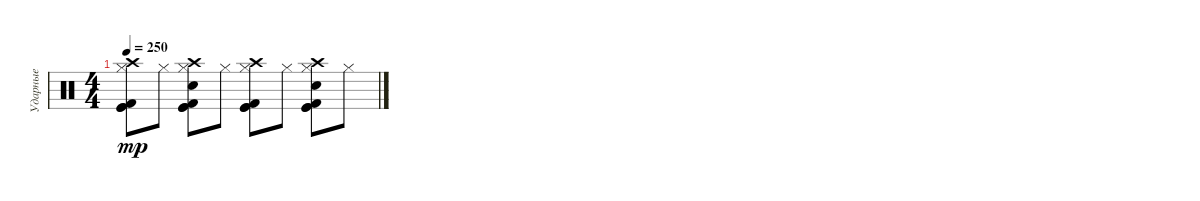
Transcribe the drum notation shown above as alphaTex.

\track ("Ударные" "Ударные") {instrument percussion}
\staff {score}
\articulation defaults
\ts (4 4)
\tempo 250
\clef neutral
\ks c
("Kick (hit)" "Kick (hit)" "Hi-Hat (closed)" "Crash high (hit)" "Kick (hit) 2").8{dy mp} "Hi-Hat (closed)".8 ("Kick (hit)" "Kick (hit)" "Hi-Hat (closed)" "Crash high (hit)" "Hand Clap (hit)" "Kick (hit) 2").8 "Hi-Hat (closed)".8 ("Kick (hit)" "Kick (hit)" "Hi-Hat (closed)" "Crash high (hit)" "Kick (hit) 2").8 "Hi-Hat (closed)".8 ("Kick (hit)" "Kick (hit)" "Hi-Hat (closed)" "Crash high (hit)" "Hand Clap (hit)" "Kick (hit) 2").8 "Hi-Hat (closed)".8
